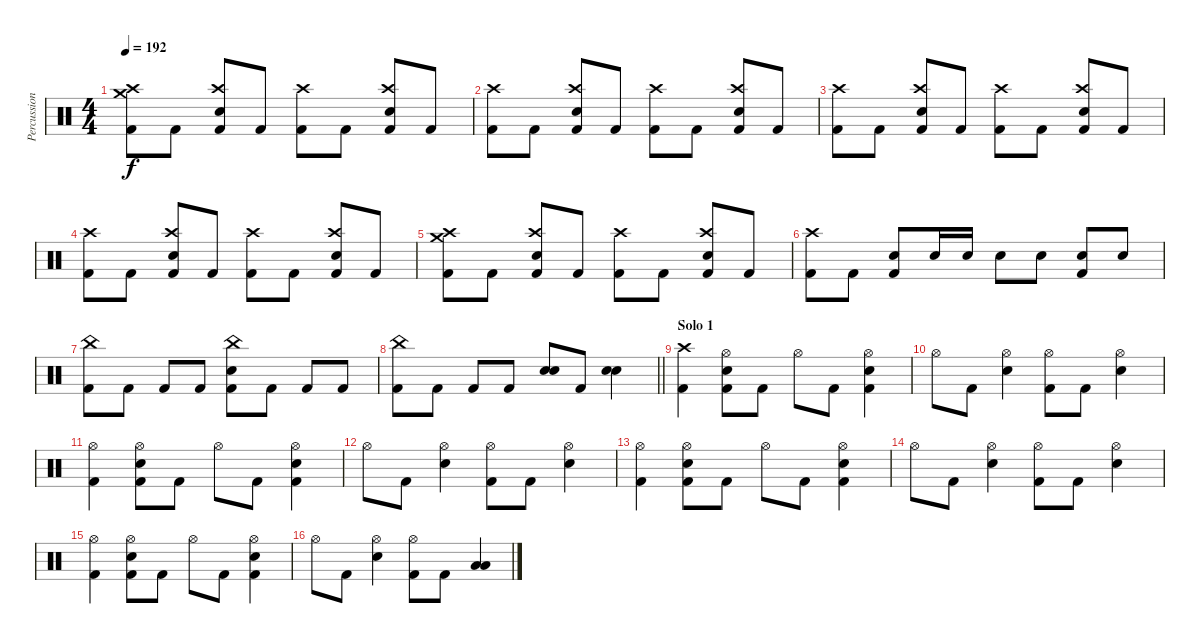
\track ("Percussion" "Percussion") {instrument percussion}
\staff {score}
\articulation defaults
\ts (4 4)
\tempo 192
\clef neutral
\ks aminor
("Kick (hit) 2" "Crash medium (hit)" "Crash high (hit)").8{dy f} "Kick (hit) 2".8 ("Kick (hit) 2" "Snare (hit) 2" "Crash high (hit)").8 "Kick (hit) 2".8 ("Kick (hit) 2" "Crash high (hit)").8 "Kick (hit) 2".8 ("Kick (hit) 2" "Snare (hit) 2" "Crash high (hit)").8 "Kick (hit) 2".8 |
("Kick (hit) 2" "Crash high (hit)").8 "Kick (hit) 2".8 ("Kick (hit) 2" "Snare (hit) 2" "Crash high (hit)").8 "Kick (hit) 2".8 ("Kick (hit) 2" "Crash high (hit)").8 "Kick (hit) 2".8 ("Kick (hit) 2" "Snare (hit) 2" "Crash high (hit)").8 "Kick (hit) 2".8 |
("Kick (hit) 2" "Crash high (hit)").8 "Kick (hit) 2".8 ("Kick (hit) 2" "Snare (hit) 2" "Crash high (hit)").8 "Kick (hit) 2".8 ("Kick (hit) 2" "Crash high (hit)").8 "Kick (hit) 2".8 ("Kick (hit) 2" "Snare (hit) 2" "Crash high (hit)").8 "Kick (hit) 2".8 |
("Kick (hit) 2" "Crash high (hit)").8 "Kick (hit) 2".8 ("Kick (hit) 2" "Snare (hit) 2" "Crash high (hit)").8 "Kick (hit) 2".8 ("Kick (hit) 2" "Crash high (hit)").8 "Kick (hit) 2".8 ("Kick (hit) 2" "Snare (hit) 2" "Crash high (hit)").8 "Kick (hit) 2".8 |
("Kick (hit) 2" "Crash medium (hit)" "Crash high (hit)").8 "Kick (hit) 2".8 ("Kick (hit) 2" "Snare (hit) 2" "Crash high (hit)").8 "Kick (hit) 2".8 ("Kick (hit) 2" "Crash high (hit)").8 "Kick (hit) 2".8 ("Kick (hit) 2" "Snare (hit) 2" "Crash high (hit)").8 "Kick (hit) 2".8 |
("Kick (hit) 2" "Crash high (hit)").8 "Kick (hit) 2".8 ("Kick (hit) 2" "Snare (hit) 2").8 "Snare (hit) 2".16 "Snare (hit) 2".16 "Snare (hit) 2".8 "Snare (hit) 2".8 ("Kick (hit) 2" "Snare (hit) 2").8 "Snare (hit) 2".8 |
("Kick (hit) 2" "China (hit)").8 "Kick (hit) 2".8 "Kick (hit) 2".8 "Kick (hit) 2".8 ("Kick (hit) 2" "Snare (hit) 2" "China (hit)").8 "Kick (hit) 2".8 "Kick (hit) 2".8 "Kick (hit) 2".8 |
\barLineRight lightlight
("Kick (hit) 2" "China (hit)").8 "Kick (hit) 2".8 "Kick (hit) 2".8 "Kick (hit) 2".8 ("Snare (hit) 2" "Snare (hit) 2").8 "Kick (hit) 2".8 ("Snare (hit) 2" "Snare (hit) 2").4 |
\section ("" "Solo 1")
("Kick (hit) 2" "Crash high (hit)").4 ("Kick (hit) 2" "Snare (hit) 2" "Hi-Hat (open)").8 "Kick (hit) 2".8 "Hi-Hat (open)".8 "Kick (hit) 2".8 ("Kick (hit) 2" "Snare (hit) 2" "Hi-Hat (open)").4 |
"Hi-Hat (open)".8 "Kick (hit) 2".8 ("Snare (hit) 2" "Hi-Hat (open)").4 ("Kick (hit) 2" "Hi-Hat (open)").8 "Kick (hit) 2".8 ("Snare (hit) 2" "Hi-Hat (open)").4 |
("Kick (hit) 2" "Hi-Hat (open)").4 ("Kick (hit) 2" "Snare (hit) 2" "Hi-Hat (open)").8 "Kick (hit) 2".8 "Hi-Hat (open)".8 "Kick (hit) 2".8 ("Kick (hit) 2" "Snare (hit) 2" "Hi-Hat (open)").4 |
"Hi-Hat (open)".8 "Kick (hit) 2".8 ("Snare (hit) 2" "Hi-Hat (open)").4 ("Kick (hit) 2" "Hi-Hat (open)").8 "Kick (hit) 2".8 ("Snare (hit) 2" "Hi-Hat (open)").4 |
("Kick (hit) 2" "Hi-Hat (open)").4 ("Kick (hit) 2" "Snare (hit) 2" "Hi-Hat (open)").8 "Kick (hit) 2".8 "Hi-Hat (open)".8 "Kick (hit) 2".8 ("Kick (hit) 2" "Snare (hit) 2" "Hi-Hat (open)").4 |
"Hi-Hat (open)".8 "Kick (hit) 2".8 ("Snare (hit) 2" "Hi-Hat (open)").4 ("Kick (hit) 2" "Hi-Hat (open)").8 "Kick (hit) 2".8 ("Snare (hit) 2" "Hi-Hat (open)").4 |
("Kick (hit) 2" "Hi-Hat (open)").4 ("Kick (hit) 2" "Snare (hit) 2" "Hi-Hat (open)").8 "Kick (hit) 2".8 "Hi-Hat (open)".8 "Kick (hit) 2".8 ("Kick (hit) 2" "Snare (hit) 2" "Hi-Hat (open)").4 |
"Hi-Hat (open)".8 "Kick (hit) 2".8 ("Snare (hit) 2" "Hi-Hat (open)").4 ("Kick (hit) 2" "Hi-Hat (open)").8 "Kick (hit) 2".8 ("Low Tom (hit)" "Low Floor Tom (hit)").4
